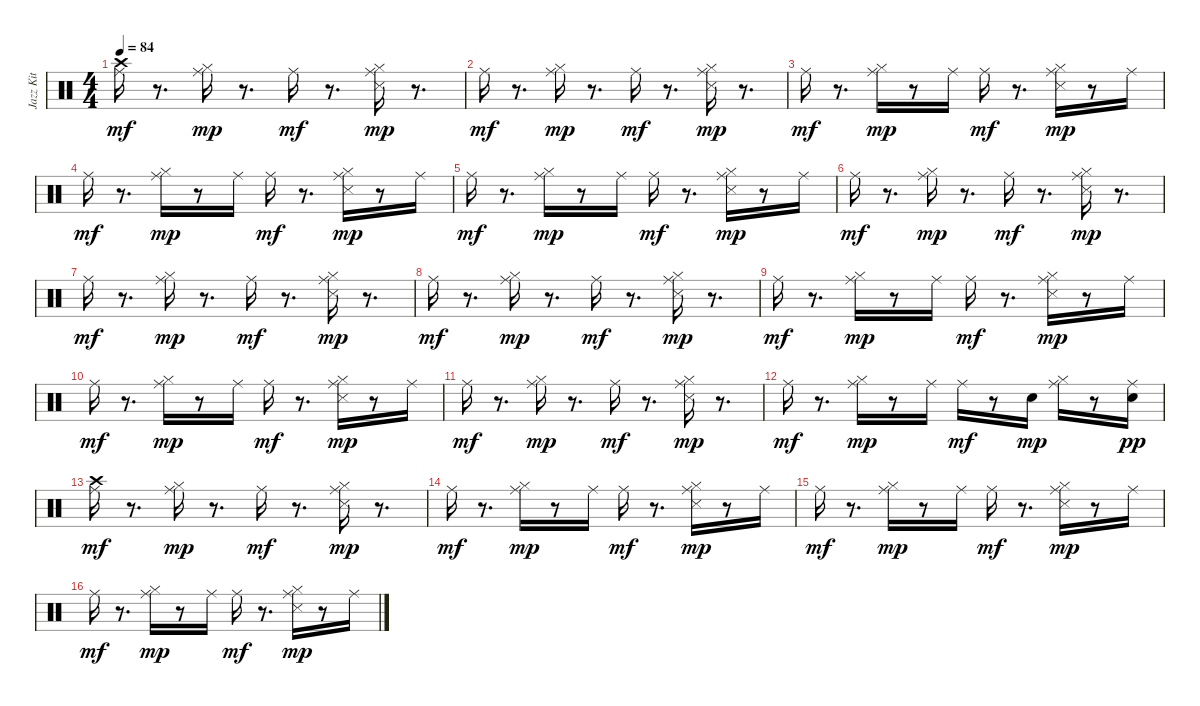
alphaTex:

\track ("Jazz Kit" "Jazz Kit") {instrument percussion}
\staff {score}
\articulation defaults
\ts (4 4)
\tempo 84
\clef neutral
\ks c
("Crash high (hit)" "Ride (middle)").16{dy mf} r.8{d} ("Ride (middle)" "Hi-Hat (closed)").16{dy mp} r.8{d} "Ride (middle)".16{dy mf} r.8{d} ("Ride (middle)" "Snare (side stick) 3" "Hi-Hat (closed)").16{dy mp} r.8{d} |
"Ride (middle)".16{dy mf} r.8{d} ("Ride (middle)" "Hi-Hat (closed)").16{dy mp} r.8{d} "Ride (middle)".16{dy mf} r.8{d} ("Ride (middle)" "Snare (side stick) 3" "Hi-Hat (closed)").16{dy mp} r.8{d} |
"Ride (middle)".16{dy mf} r.8{d} ("Ride (middle)" "Hi-Hat (closed)").16{dy mp} r.8 "Ride (middle)".16 "Ride (middle)".16{dy mf} r.8{d} ("Ride (middle)" "Snare (side stick) 3" "Hi-Hat (closed)").16{dy mp} r.8 "Ride (middle)".16 |
"Ride (middle)".16{dy mf} r.8{d} ("Ride (middle)" "Hi-Hat (closed)").16{dy mp} r.8 "Ride (middle)".16 "Ride (middle)".16{dy mf} r.8{d} ("Ride (middle)" "Snare (side stick) 3" "Hi-Hat (closed)").16{dy mp} r.8 "Ride (middle)".16 |
"Ride (middle)".16{dy mf} r.8{d} ("Ride (middle)" "Hi-Hat (closed)").16{dy mp} r.8 "Ride (middle)".16 "Ride (middle)".16{dy mf} r.8{d} ("Ride (middle)" "Snare (side stick) 3" "Hi-Hat (closed)").16{dy mp} r.8 "Ride (middle)".16 |
"Ride (middle)".16{dy mf} r.8{d} ("Ride (middle)" "Hi-Hat (closed)").16{dy mp} r.8{d} "Ride (middle)".16{dy mf} r.8{d} ("Ride (middle)" "Snare (side stick) 3" "Hi-Hat (closed)").16{dy mp} r.8{d} |
"Ride (middle)".16{dy mf} r.8{d} ("Ride (middle)" "Hi-Hat (closed)").16{dy mp} r.8{d} "Ride (middle)".16{dy mf} r.8{d} ("Ride (middle)" "Snare (side stick) 3" "Hi-Hat (closed)").16{dy mp} r.8{d} |
"Ride (middle)".16{dy mf} r.8{d} ("Ride (middle)" "Hi-Hat (closed)").16{dy mp} r.8{d} "Ride (middle)".16{dy mf} r.8{d} ("Ride (middle)" "Snare (side stick) 3" "Hi-Hat (closed)").16{dy mp} r.8{d} |
"Ride (middle)".16{dy mf} r.8{d} ("Ride (middle)" "Hi-Hat (closed)").16{dy mp} r.8 "Ride (middle)".16 "Ride (middle)".16{dy mf} r.8{d} ("Ride (middle)" "Snare (side stick) 3" "Hi-Hat (closed)").16{dy mp} r.8 "Ride (middle)".16 |
"Ride (middle)".16{dy mf} r.8{d} ("Ride (middle)" "Hi-Hat (closed)").16{dy mp} r.8 "Ride (middle)".16 "Ride (middle)".16{dy mf} r.8{d} ("Ride (middle)" "Snare (side stick) 3" "Hi-Hat (closed)").16{dy mp} r.8 "Ride (middle)".16 |
"Ride (middle)".16{dy mf} r.8{d} ("Ride (middle)" "Hi-Hat (closed)").16{dy mp} r.8{d} "Ride (middle)".16{dy mf} r.8{d} ("Ride (middle)" "Snare (side stick) 3" "Hi-Hat (closed)").16{dy mp} r.8{d} |
"Ride (middle)".16{dy mf} r.8{d} ("Ride (middle)" "Hi-Hat (closed)").16{dy mp} r.8 "Ride (middle)".16 "Ride (middle)".16{dy mf} r.8 "Snare (hit) 2".16{dy mp} ("Ride (middle)" "Hi-Hat (closed)").16 r.8 ("Ride (middle)" "Snare (hit) 2").16{dy pp} |
("Crash high (hit)" "Ride (middle)").16{dy mf} r.8{d} ("Ride (middle)" "Hi-Hat (closed)").16{dy mp} r.8{d} "Ride (middle)".16{dy mf} r.8{d} ("Ride (middle)" "Snare (side stick) 3" "Hi-Hat (closed)").16{dy mp} r.8{d} |
"Ride (middle)".16{dy mf} r.8{d} ("Ride (middle)" "Hi-Hat (closed)").16{dy mp} r.8 "Ride (middle)".16 "Ride (middle)".16{dy mf} r.8{d} ("Ride (middle)" "Snare (side stick) 3" "Hi-Hat (closed)").16{dy mp} r.8 "Ride (middle)".16 |
"Ride (middle)".16{dy mf} r.8{d} ("Ride (middle)" "Hi-Hat (closed)").16{dy mp} r.8 "Ride (middle)".16 "Ride (middle)".16{dy mf} r.8{d} ("Ride (middle)" "Snare (side stick) 3" "Hi-Hat (closed)").16{dy mp} r.8 "Ride (middle)".16 |
"Ride (middle)".16{dy mf} r.8{d} ("Ride (middle)" "Hi-Hat (closed)").16{dy mp} r.8 "Ride (middle)".16 "Ride (middle)".16{dy mf} r.8{d} ("Ride (middle)" "Snare (side stick) 3" "Hi-Hat (closed)").16{dy mp} r.8 "Ride (middle)".16
